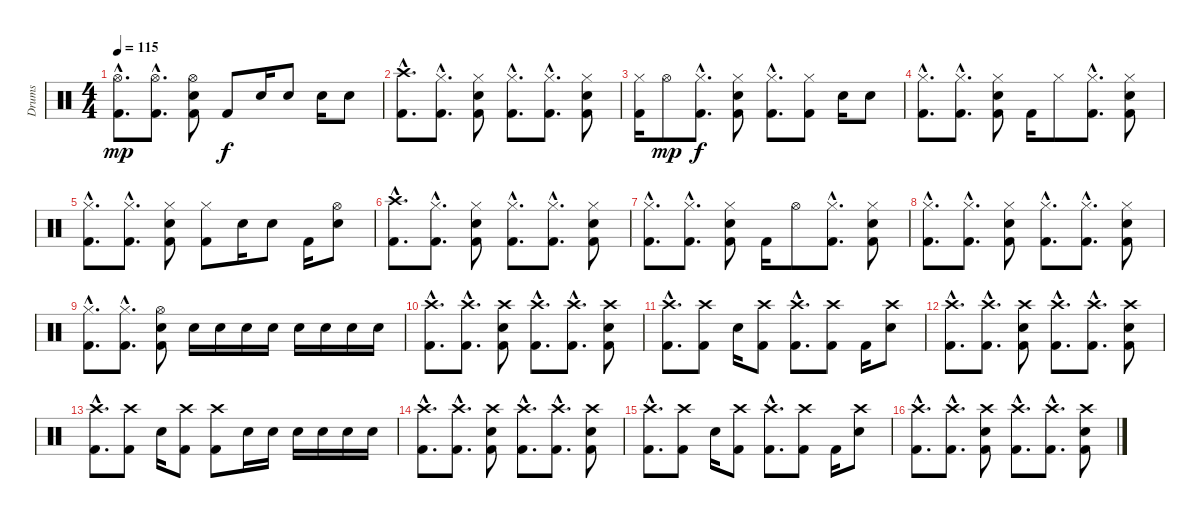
\track ("Drums" "Drums") {instrument percussion}
\staff {score}
\articulation defaults
\ts (4 4)
\tempo 115
\clef neutral
\ks c
("Hi-Hat (open)"{hac} "Kick (hit) 2"{hac}).8{d dy mp} ("Hi-Hat (open)"{hac} "Kick (hit) 2"{hac}).8{d} ("Hi-Hat (open)" "Electric Snare (hit)" "Kick (hit) 2").8 "Kick (hit) 2".8{dy f} "Electric Snare (hit)".16 "Electric Snare (hit)".8 "Electric Snare (hit)".16 "Electric Snare (hit)".8 |
("Crash high (hit)"{hac} "Kick (hit) 2"{hac}).8{d} ("Hi-Hat (closed)"{hac} "Kick (hit) 2"{hac}).8{d} ("Hi-Hat (closed)" "Electric Snare (hit)" "Kick (hit) 2").8 ("Hi-Hat (closed)"{hac} "Kick (hit) 2"{hac}).8{d} ("Hi-Hat (closed)"{hac} "Kick (hit) 2"{hac}).8{d} ("Hi-Hat (closed)" "Electric Snare (hit)" "Kick (hit) 2").8 |
("Hi-Hat (closed)" "Kick (hit) 2").16 "Hi-Hat (open)".8{dy mp} ("Hi-Hat (closed)"{hac} "Kick (hit) 2"{hac}).8{d dy f} ("Hi-Hat (closed)" "Electric Snare (hit)" "Kick (hit) 2").8 ("Hi-Hat (closed)"{hac} "Kick (hit) 2"{hac}).8{d} ("Hi-Hat (closed)" "Kick (hit) 2").8 "Electric Snare (hit)".16 "Electric Snare (hit)".8 |
("Hi-Hat (closed)"{hac} "Kick (hit) 2"{hac}).8{d} ("Hi-Hat (closed)"{hac} "Kick (hit) 2"{hac}).8{d} ("Hi-Hat (closed)" "Electric Snare (hit)" "Kick (hit) 2").8 "Kick (hit) 2".16 "Hi-Hat (closed)".8 ("Hi-Hat (closed)"{hac} "Kick (hit) 2"{hac}).8{d} ("Hi-Hat (closed)" "Electric Snare (hit)" "Kick (hit) 2").8 |
("Hi-Hat (closed)"{hac} "Kick (hit) 2"{hac}).8{d} ("Hi-Hat (closed)"{hac} "Kick (hit) 2"{hac}).8{d} ("Hi-Hat (closed)" "Electric Snare (hit)" "Kick (hit) 2").8 ("Hi-Hat (closed)" "Kick (hit) 2").8 "Electric Snare (hit)".16 "Electric Snare (hit)".8 "Kick (hit) 2".16 ("Hi-Hat (open)" "Electric Snare (hit)").8 |
("Crash high (hit)"{hac} "Kick (hit) 2"{hac}).8{d} ("Hi-Hat (closed)"{hac} "Kick (hit) 2"{hac}).8{d} ("Hi-Hat (closed)" "Electric Snare (hit)" "Kick (hit) 2").8 ("Hi-Hat (closed)"{hac} "Kick (hit) 2"{hac}).8{d} ("Hi-Hat (closed)"{hac} "Kick (hit) 2"{hac}).8{d} ("Hi-Hat (closed)" "Electric Snare (hit)" "Kick (hit) 2").8 |
("Hi-Hat (closed)"{hac} "Kick (hit) 2"{hac}).8{d} ("Hi-Hat (closed)"{hac} "Kick (hit) 2"{hac}).8{d} ("Hi-Hat (closed)" "Electric Snare (hit)" "Kick (hit) 2").8 "Kick (hit) 2".16 "Hi-Hat (open)".8 ("Hi-Hat (closed)"{hac} "Kick (hit) 2"{hac}).8{d} ("Hi-Hat (closed)" "Electric Snare (hit)" "Kick (hit) 2").8 |
("Hi-Hat (closed)"{hac} "Kick (hit) 2"{hac}).8{d} ("Hi-Hat (closed)"{hac} "Kick (hit) 2"{hac}).8{d} ("Hi-Hat (closed)" "Electric Snare (hit)" "Kick (hit) 2").8 ("Hi-Hat (closed)"{hac} "Kick (hit) 2"{hac}).8{d} ("Hi-Hat (closed)"{hac} "Kick (hit) 2"{hac}).8{d} ("Hi-Hat (closed)" "Electric Snare (hit)" "Kick (hit) 2").8 |
("Hi-Hat (closed)"{hac} "Kick (hit) 2"{hac}).8{d} ("Hi-Hat (closed)"{hac} "Kick (hit) 2"{hac}).8{d} ("Hi-Hat (open)" "Electric Snare (hit)" "Kick (hit) 2").8 "Electric Snare (hit)".16 "Electric Snare (hit)".16 "Electric Snare (hit)".16 "Electric Snare (hit)".16 "Electric Snare (hit)".16 "Electric Snare (hit)".16 "Electric Snare (hit)".16 "Electric Snare (hit)".16 |
("Crash high (hit)"{hac} "Kick (hit) 2"{hac}).8{d} ("Crash high (hit)"{hac} "Kick (hit) 2"{hac}).8{d} ("Crash high (hit)" "Electric Snare (hit)" "Kick (hit) 2").8 ("Crash high (hit)"{hac} "Kick (hit) 2"{hac}).8{d} ("Crash high (hit)"{hac} "Kick (hit) 2"{hac}).8{d} ("Crash high (hit)" "Electric Snare (hit)" "Kick (hit) 2").8 |
("Crash high (hit)"{hac} "Kick (hit) 2"{hac}).8{d} ("Crash high (hit)" "Kick (hit) 2").8 "Electric Snare (hit)".16 ("Crash high (hit)" "Kick (hit) 2").8 ("Crash high (hit)"{hac} "Kick (hit) 2"{hac}).8{d} ("Crash high (hit)" "Kick (hit) 2").8 "Kick (hit) 2".16 ("Crash high (hit)" "Electric Snare (hit)").8 |
("Crash high (hit)"{hac} "Kick (hit) 2"{hac}).8{d} ("Crash high (hit)"{hac} "Kick (hit) 2"{hac}).8{d} ("Crash high (hit)" "Electric Snare (hit)" "Kick (hit) 2").8 ("Crash high (hit)"{hac} "Kick (hit) 2"{hac}).8{d} ("Crash high (hit)"{hac} "Kick (hit) 2"{hac}).8{d} ("Crash high (hit)" "Electric Snare (hit)" "Kick (hit) 2").8 |
("Crash high (hit)"{hac} "Kick (hit) 2"{hac}).8{d} ("Crash high (hit)" "Kick (hit) 2").8 "Electric Snare (hit)".16 ("Crash high (hit)" "Kick (hit) 2").8 ("Crash high (hit)" "Kick (hit) 2").8 "Electric Snare (hit)".16 "Electric Snare (hit)".16 "Electric Snare (hit)".16 "Electric Snare (hit)".16 "Electric Snare (hit)".16 "Electric Snare (hit)".16 |
("Crash high (hit)"{hac} "Kick (hit) 2"{hac}).8{d} ("Crash high (hit)"{hac} "Kick (hit) 2"{hac}).8{d} ("Crash high (hit)" "Electric Snare (hit)" "Kick (hit) 2").8 ("Crash high (hit)"{hac} "Kick (hit) 2"{hac}).8{d} ("Crash high (hit)"{hac} "Kick (hit) 2"{hac}).8{d} ("Crash high (hit)" "Electric Snare (hit)" "Kick (hit) 2").8 |
("Crash high (hit)"{hac} "Kick (hit) 2"{hac}).8{d} ("Crash high (hit)" "Kick (hit) 2").8 "Electric Snare (hit)".16 ("Crash high (hit)" "Kick (hit) 2").8 ("Crash high (hit)"{hac} "Kick (hit) 2"{hac}).8{d} ("Crash high (hit)" "Kick (hit) 2").8 "Kick (hit) 2".16 ("Crash high (hit)" "Electric Snare (hit)").8 |
("Crash high (hit)"{hac} "Kick (hit) 2"{hac}).8{d} ("Crash high (hit)"{hac} "Kick (hit) 2"{hac}).8{d} ("Crash high (hit)" "Electric Snare (hit)" "Kick (hit) 2").8 ("Crash high (hit)"{hac} "Kick (hit) 2"{hac}).8{d} ("Crash high (hit)"{hac} "Kick (hit) 2"{hac}).8{d} ("Crash high (hit)" "Electric Snare (hit)" "Kick (hit) 2").8
